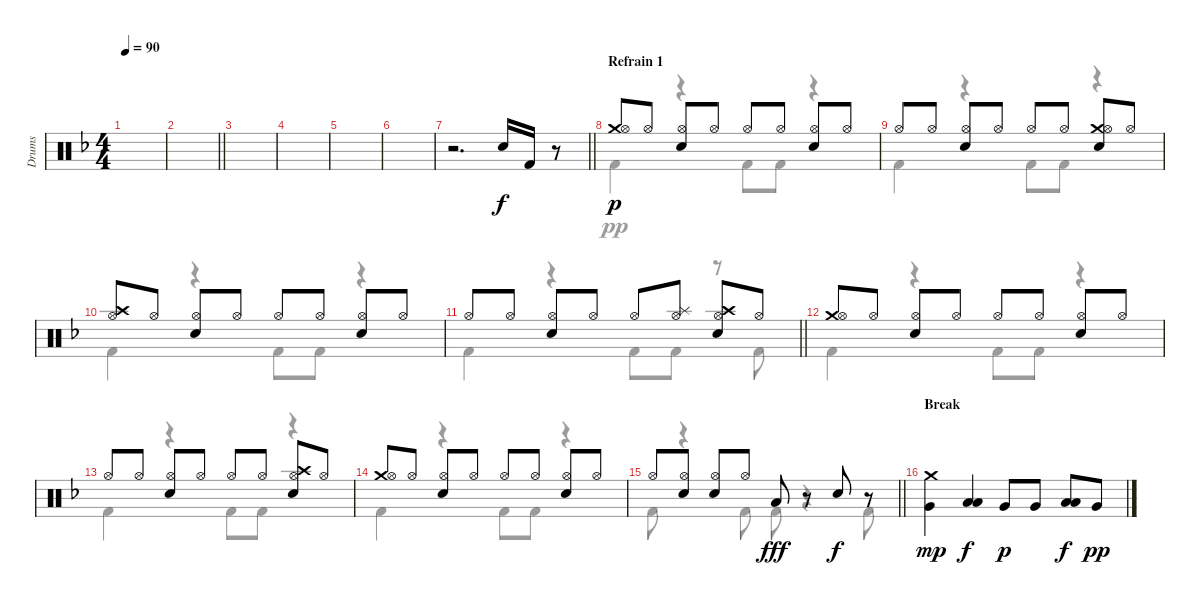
\track ("Drums" "Drums") {instrument percussion}
\staff {score}
\articulation defaults
\voice
\ts (4 4)
\tempo 90
\clef neutral
\ks dminor
|
\barLineRight lightlight
|
|
|
|
|
\barLineRight lightlight
r.2{d} "Electric Snare (hit)".16 "Kick (hit) 2".16 r.8 |
\section ("" "Refrain 1")
("Crash medium (hit)" "Hi-Hat (open)").8{dy p} "Hi-Hat (open)".8 ("Electric Snare (hit)" "Hi-Hat (open)").8 "Hi-Hat (open)".8 "Hi-Hat (open)".8 "Hi-Hat (open)".8 ("Electric Snare (hit)" "Hi-Hat (open)").8 "Hi-Hat (open)".8 |
"Hi-Hat (open)".8 "Hi-Hat (open)".8 ("Electric Snare (hit)" "Hi-Hat (open)").8 "Hi-Hat (open)".8 "Hi-Hat (open)".8 "Hi-Hat (open)".8 ("Crash medium (hit)" "Electric Snare (hit)" "Hi-Hat (open)").8 "Hi-Hat (open)".8 |
("Crash high (hit)" "Hi-Hat (open)").8 "Hi-Hat (open)".8 ("Electric Snare (hit)" "Hi-Hat (open)").8 "Hi-Hat (open)".8 "Hi-Hat (open)".8 "Hi-Hat (open)".8 ("Electric Snare (hit)" "Hi-Hat (open)").8 "Hi-Hat (open)".8 |
\barLineRight lightlight "Hi-Hat (open)".8 "Hi-Hat (open)".8
("Electric Snare (hit)" "Hi-Hat (open)").8 "Hi-Hat (open)".8 "Hi-Hat (open)".8 ("Splash (hit)" "Hi-Hat (open)").8 ("Crash high (hit)" "Electric Snare (hit)" "Hi-Hat (open)").8 "Hi-Hat (open)".8 |
("Crash medium (hit)" "Hi-Hat (open)").8 "Hi-Hat (open)".8 ("Electric Snare (hit)" "Hi-Hat (open)").8 "Hi-Hat (open)".8 "Hi-Hat (open)".8 "Hi-Hat (open)".8 ("Electric Snare (hit)" "Hi-Hat (open)").8 "Hi-Hat (open)".8 |
"Hi-Hat (open)".8 "Hi-Hat (open)".8 ("Electric Snare (hit)" "Hi-Hat (open)").8 "Hi-Hat (open)".8 "Hi-Hat (open)".8 "Hi-Hat (open)".8 ("Crash high (hit)" "Electric Snare (hit)" "Hi-Hat (open)").8 "Hi-Hat (open)".8 |
("Crash medium (hit)" "Hi-Hat (open)").8 "Hi-Hat (open)".8 ("Electric Snare (hit)" "Hi-Hat (open)").8 "Hi-Hat (open)".8 "Hi-Hat (open)".8 "Hi-Hat (open)".8 ("Electric Snare (hit)" "Hi-Hat (open)").8 "Hi-Hat (open)".8 |
\barLineRight lightlight "Hi-Hat (open)".8
("Electric Snare (hit)" "Hi-Hat (open)").8 ("Electric Snare (hit)" "Hi-Hat (open)").8 "Hi-Hat (open)".8 "Low Floor Tom (hit)".8{dy fff} r.8 "Electric Snare (hit)".8{dy f} r.8 |
\section ("" "Break")
("Crash medium (hit)" "Very Low Tom (hit)").4{dy mp} ("Low Tom (hit)" "Low Floor Tom (hit)").4{dy f} "Very Low Tom (hit)".8{dy p} "Very Low Tom (hit)".8 ("Low Tom (hit)" "Low Floor Tom (hit)").8{dy f} "Very Low Tom (hit)".8{dy pp}
\voice
\clef neutral
\ottava regular
\simile none
\ks dminor
|
\barLineRight lightlight
|
|
|
|
|
\barLineRight lightlight
|
"Kick (hit) 2".4 r.4 "Kick (hit) 2".8 "Kick (hit) 2".8 r.4 |
"Kick (hit) 2".4 r.4 "Kick (hit) 2".8 "Kick (hit) 2".8 r.4 |
"Kick (hit) 2".4 r.4 "Kick (hit) 2".8 "Kick (hit) 2".8 r.4 |
\barLineRight lightlight "Kick (hit) 2".4
r.4 "Kick (hit) 2".8 "Kick (hit) 2".8 r.8 "Kick (hit) 2".8 |
"Kick (hit) 2".4 r.4 "Kick (hit) 2".8 "Kick (hit) 2".8 r.4 |
"Kick (hit) 2".4 r.4 "Kick (hit) 2".8 "Kick (hit) 2".8 r.4 |
"Kick (hit) 2".4 r.4 "Kick (hit) 2".8 "Kick (hit) 2".8 r.4 |
\barLineRight lightlight "Kick (hit) 2".8
r.4 "Kick (hit) 2".8 "Kick (hit) 2".8 r.4 "Kick (hit) 2".8 |
